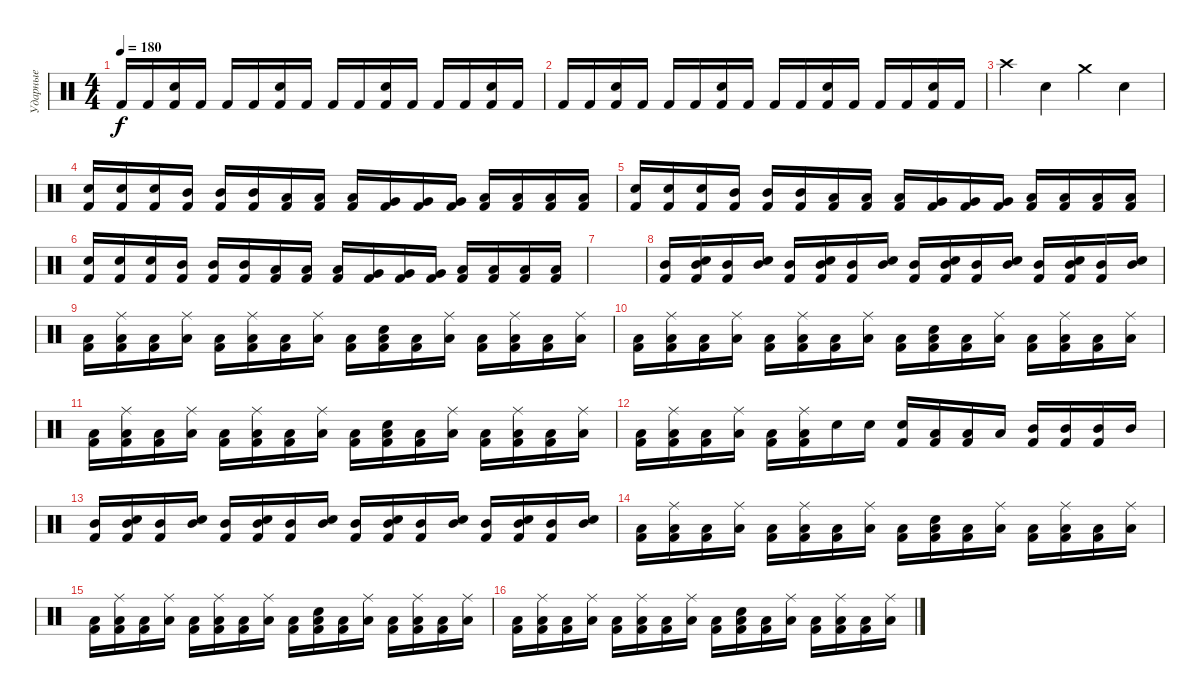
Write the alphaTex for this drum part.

\track ("Ударные" "Ударные") {instrument percussion}
\staff {score}
\articulation defaults
\ts (4 4)
\tempo 180
\clef neutral
\ks c "Kick (hit) 2".16{dy f} "Kick (hit) 2".16
("Electric Snare (hit)" "Kick (hit) 2").16 "Kick (hit) 2".16 "Kick (hit) 2".16 "Kick (hit) 2".16 ("Electric Snare (hit)" "Kick (hit) 2").16 "Kick (hit) 2".16 "Kick (hit) 2".16 "Kick (hit) 2".16 ("Electric Snare (hit)" "Kick (hit) 2").16 "Kick (hit) 2".16 "Kick (hit) 2".16 "Kick (hit) 2".16 ("Electric Snare (hit)" "Kick (hit) 2").16 "Kick (hit) 2".16 |
"Kick (hit) 2".16 "Kick (hit) 2".16 ("Electric Snare (hit)" "Kick (hit) 2").16 "Kick (hit) 2".16 "Kick (hit) 2".16 "Kick (hit) 2".16 ("Electric Snare (hit)" "Kick (hit) 2").16 "Kick (hit) 2".16 "Kick (hit) 2".16 "Kick (hit) 2".16 ("Electric Snare (hit)" "Kick (hit) 2").16 "Kick (hit) 2".16 "Kick (hit) 2".16 "Kick (hit) 2".16 ("Electric Snare (hit)" "Kick (hit) 2").16 "Kick (hit) 2".16 |
"Crash high (hit)".4 "Electric Snare (hit)".4 "Crash medium (hit)".4 "Electric Snare (hit)".4 |
("Electric Snare (hit)" "Kick (hit) 2").16 ("Electric Snare (hit)" "Kick (hit) 2").16 ("Electric Snare (hit)" "Kick (hit) 2").16 ("Mid Tom (hit)" "Kick (hit) 2").16 ("Mid Tom (hit)" "Kick (hit) 2").16 ("Mid Tom (hit)" "Kick (hit) 2").16 ("Low Tom (hit)" "Kick (hit) 2").16 ("Low Tom (hit)" "Kick (hit) 2").16 ("Low Tom (hit)" "Kick (hit) 2").16 ("Very Low Tom (hit)" "Kick (hit) 2").16 ("Very Low Tom (hit)" "Kick (hit) 2").16 ("Very Low Tom (hit)" "Kick (hit) 2").16 ("Low Floor Tom (hit)" "Kick (hit) 2").16 ("Low Floor Tom (hit)" "Kick (hit) 2").16 ("Low Floor Tom (hit)" "Kick (hit) 2").16 ("Low Floor Tom (hit)" "Kick (hit) 2").16 |
("Electric Snare (hit)" "Kick (hit) 2").16 ("Electric Snare (hit)" "Kick (hit) 2").16 ("Electric Snare (hit)" "Kick (hit) 2").16 ("Mid Tom (hit)" "Kick (hit) 2").16 ("Mid Tom (hit)" "Kick (hit) 2").16 ("Mid Tom (hit)" "Kick (hit) 2").16 ("Low Tom (hit)" "Kick (hit) 2").16 ("Low Tom (hit)" "Kick (hit) 2").16 ("Low Tom (hit)" "Kick (hit) 2").16 ("Very Low Tom (hit)" "Kick (hit) 2").16 ("Very Low Tom (hit)" "Kick (hit) 2").16 ("Very Low Tom (hit)" "Kick (hit) 2").16 ("Low Floor Tom (hit)" "Kick (hit) 2").16 ("Low Floor Tom (hit)" "Kick (hit) 2").16 ("Low Floor Tom (hit)" "Kick (hit) 2").16 ("Low Floor Tom (hit)" "Kick (hit) 2").16 |
("Electric Snare (hit)" "Kick (hit) 2").16 ("Electric Snare (hit)" "Kick (hit) 2").16 ("Electric Snare (hit)" "Kick (hit) 2").16 ("Mid Tom (hit)" "Kick (hit) 2").16 ("Mid Tom (hit)" "Kick (hit) 2").16 ("Mid Tom (hit)" "Kick (hit) 2").16 ("Low Tom (hit)" "Kick (hit) 2").16 ("Low Tom (hit)" "Kick (hit) 2").16 ("Low Tom (hit)" "Kick (hit) 2").16 ("Very Low Tom (hit)" "Kick (hit) 2").16 ("Very Low Tom (hit)" "Kick (hit) 2").16 ("Very Low Tom (hit)" "Kick (hit) 2").16 ("Low Floor Tom (hit)" "Kick (hit) 2").16 ("Low Floor Tom (hit)" "Kick (hit) 2").16 ("Low Floor Tom (hit)" "Kick (hit) 2").16 ("Low Floor Tom (hit)" "Kick (hit) 2").16 |
|
("Mid Tom (hit)" "Kick (hit) 2").16 ("Mid Tom (hit)" "Electric Snare (hit)" "Kick (hit) 2").16 ("Mid Tom (hit)" "Kick (hit) 2").16 ("Mid Tom (hit)" "Electric Snare (hit)").16 ("Mid Tom (hit)" "Kick (hit) 2").16 ("Mid Tom (hit)" "Electric Snare (hit)" "Kick (hit) 2").16 ("Mid Tom (hit)" "Kick (hit) 2").16 ("Mid Tom (hit)" "Electric Snare (hit)").16 ("Mid Tom (hit)" "Kick (hit) 2").16 ("Mid Tom (hit)" "Electric Snare (hit)" "Kick (hit) 2").16 ("Mid Tom (hit)" "Kick (hit) 2").16 ("Mid Tom (hit)" "Electric Snare (hit)").16 ("Mid Tom (hit)" "Kick (hit) 2").16 ("Mid Tom (hit)" "Electric Snare (hit)" "Kick (hit) 2").16 ("Mid Tom (hit)" "Kick (hit) 2").16 ("Mid Tom (hit)" "Electric Snare (hit)").16 |
("Low Tom (hit)" "Kick (hit) 2").16 ("Low Tom (hit)" "Ride (middle)" "Kick (hit) 2").16 ("Low Tom (hit)" "Kick (hit) 2").16 ("Low Tom (hit)" "Ride (middle)").16 ("Low Tom (hit)" "Kick (hit) 2").16 ("Low Tom (hit)" "Ride (middle)" "Kick (hit) 2").16 ("Low Tom (hit)" "Kick (hit) 2").16 ("Low Tom (hit)" "Ride (middle)").16 ("Low Tom (hit)" "Kick (hit) 2").16 ("Low Tom (hit)" "Electric Snare (hit)" "Kick (hit) 2").16 ("Low Tom (hit)" "Kick (hit) 2").16 ("Low Tom (hit)" "Ride (middle)").16 ("Low Tom (hit)" "Kick (hit) 2").16 ("Low Tom (hit)" "Ride (middle)" "Kick (hit) 2").16 ("Low Tom (hit)" "Kick (hit) 2").16 ("Low Tom (hit)" "Ride (middle)").16 |
("Low Tom (hit)" "Kick (hit) 2").16 ("Low Tom (hit)" "Ride (middle)" "Kick (hit) 2").16 ("Low Tom (hit)" "Kick (hit) 2").16 ("Low Tom (hit)" "Ride (middle)").16 ("Low Tom (hit)" "Kick (hit) 2").16 ("Low Tom (hit)" "Ride (middle)" "Kick (hit) 2").16 ("Low Tom (hit)" "Kick (hit) 2").16 ("Low Tom (hit)" "Ride (middle)").16 ("Low Tom (hit)" "Kick (hit) 2").16 ("Low Tom (hit)" "Electric Snare (hit)" "Kick (hit) 2").16 ("Low Tom (hit)" "Kick (hit) 2").16 ("Low Tom (hit)" "Ride (middle)").16 ("Low Tom (hit)" "Kick (hit) 2").16 ("Low Tom (hit)" "Ride (middle)" "Kick (hit) 2").16 ("Low Tom (hit)" "Kick (hit) 2").16 ("Low Tom (hit)" "Ride (middle)").16 |
("Low Tom (hit)" "Kick (hit) 2").16 ("Low Tom (hit)" "Ride (middle)" "Kick (hit) 2").16 ("Low Tom (hit)" "Kick (hit) 2").16 ("Low Tom (hit)" "Ride (middle)").16 ("Low Tom (hit)" "Kick (hit) 2").16 ("Low Tom (hit)" "Ride (middle)" "Kick (hit) 2").16 ("Low Tom (hit)" "Kick (hit) 2").16 ("Low Tom (hit)" "Ride (middle)").16 ("Low Tom (hit)" "Kick (hit) 2").16 ("Low Tom (hit)" "Electric Snare (hit)" "Kick (hit) 2").16 ("Low Tom (hit)" "Kick (hit) 2").16 ("Low Tom (hit)" "Ride (middle)").16 ("Low Tom (hit)" "Kick (hit) 2").16 ("Low Tom (hit)" "Ride (middle)" "Kick (hit) 2").16 ("Low Tom (hit)" "Kick (hit) 2").16 ("Low Tom (hit)" "Ride (middle)").16 |
("Low Tom (hit)" "Kick (hit) 2").16 ("Low Tom (hit)" "Ride (middle)" "Kick (hit) 2").16 ("Low Tom (hit)" "Kick (hit) 2").16 ("Low Tom (hit)" "Ride (middle)").16 ("Low Tom (hit)" "Kick (hit) 2").16 ("Low Tom (hit)" "Ride (middle)" "Kick (hit) 2").16 "Electric Snare (hit)".16 "Electric Snare (hit)".16 ("Electric Snare (hit)" "Kick (hit) 2").16 ("Low Tom (hit)" "Kick (hit) 2").16 ("Low Tom (hit)" "Kick (hit) 2").16 "Low Tom (hit)".16 ("Mid Tom (hit)" "Kick (hit) 2").16 ("Mid Tom (hit)" "Kick (hit) 2").16 ("Mid Tom (hit)" "Kick (hit) 2").16 "Mid Tom (hit)".16 |
("Mid Tom (hit)" "Kick (hit) 2").16 ("Mid Tom (hit)" "Electric Snare (hit)" "Kick (hit) 2").16 ("Mid Tom (hit)" "Kick (hit) 2").16 ("Mid Tom (hit)" "Electric Snare (hit)").16 ("Mid Tom (hit)" "Kick (hit) 2").16 ("Mid Tom (hit)" "Electric Snare (hit)" "Kick (hit) 2").16 ("Mid Tom (hit)" "Kick (hit) 2").16 ("Mid Tom (hit)" "Electric Snare (hit)").16 ("Mid Tom (hit)" "Kick (hit) 2").16 ("Mid Tom (hit)" "Electric Snare (hit)" "Kick (hit) 2").16 ("Mid Tom (hit)" "Kick (hit) 2").16 ("Mid Tom (hit)" "Electric Snare (hit)").16 ("Mid Tom (hit)" "Kick (hit) 2").16 ("Mid Tom (hit)" "Electric Snare (hit)" "Kick (hit) 2").16 ("Mid Tom (hit)" "Kick (hit) 2").16 ("Mid Tom (hit)" "Electric Snare (hit)").16 |
("Low Tom (hit)" "Kick (hit) 2").16 ("Low Tom (hit)" "Ride (middle)" "Kick (hit) 2").16 ("Low Tom (hit)" "Kick (hit) 2").16 ("Low Tom (hit)" "Ride (middle)").16 ("Low Tom (hit)" "Kick (hit) 2").16 ("Low Tom (hit)" "Ride (middle)" "Kick (hit) 2").16 ("Low Tom (hit)" "Kick (hit) 2").16 ("Low Tom (hit)" "Ride (middle)").16 ("Low Tom (hit)" "Kick (hit) 2").16 ("Low Tom (hit)" "Electric Snare (hit)" "Kick (hit) 2").16 ("Low Tom (hit)" "Kick (hit) 2").16 ("Low Tom (hit)" "Ride (middle)").16 ("Low Tom (hit)" "Kick (hit) 2").16 ("Low Tom (hit)" "Ride (middle)" "Kick (hit) 2").16 ("Low Tom (hit)" "Kick (hit) 2").16 ("Low Tom (hit)" "Ride (middle)").16 |
("Low Tom (hit)" "Kick (hit) 2").16 ("Low Tom (hit)" "Ride (middle)" "Kick (hit) 2").16 ("Low Tom (hit)" "Kick (hit) 2").16 ("Low Tom (hit)" "Ride (middle)").16 ("Low Tom (hit)" "Kick (hit) 2").16 ("Low Tom (hit)" "Ride (middle)" "Kick (hit) 2").16 ("Low Tom (hit)" "Kick (hit) 2").16 ("Low Tom (hit)" "Ride (middle)").16 ("Low Tom (hit)" "Kick (hit) 2").16 ("Low Tom (hit)" "Electric Snare (hit)" "Kick (hit) 2").16 ("Low Tom (hit)" "Kick (hit) 2").16 ("Low Tom (hit)" "Ride (middle)").16 ("Low Tom (hit)" "Kick (hit) 2").16 ("Low Tom (hit)" "Ride (middle)" "Kick (hit) 2").16 ("Low Tom (hit)" "Kick (hit) 2").16 ("Low Tom (hit)" "Ride (middle)").16 |
("Low Tom (hit)" "Kick (hit) 2").16 ("Low Tom (hit)" "Ride (middle)" "Kick (hit) 2").16 ("Low Tom (hit)" "Kick (hit) 2").16 ("Low Tom (hit)" "Ride (middle)").16 ("Low Tom (hit)" "Kick (hit) 2").16 ("Low Tom (hit)" "Ride (middle)" "Kick (hit) 2").16 ("Low Tom (hit)" "Kick (hit) 2").16 ("Low Tom (hit)" "Ride (middle)").16 ("Low Tom (hit)" "Kick (hit) 2").16 ("Low Tom (hit)" "Electric Snare (hit)" "Kick (hit) 2").16 ("Low Tom (hit)" "Kick (hit) 2").16 ("Low Tom (hit)" "Ride (middle)").16 ("Low Tom (hit)" "Kick (hit) 2").16 ("Low Tom (hit)" "Ride (middle)" "Kick (hit) 2").16 ("Low Tom (hit)" "Kick (hit) 2").16 ("Low Tom (hit)" "Ride (middle)").16
